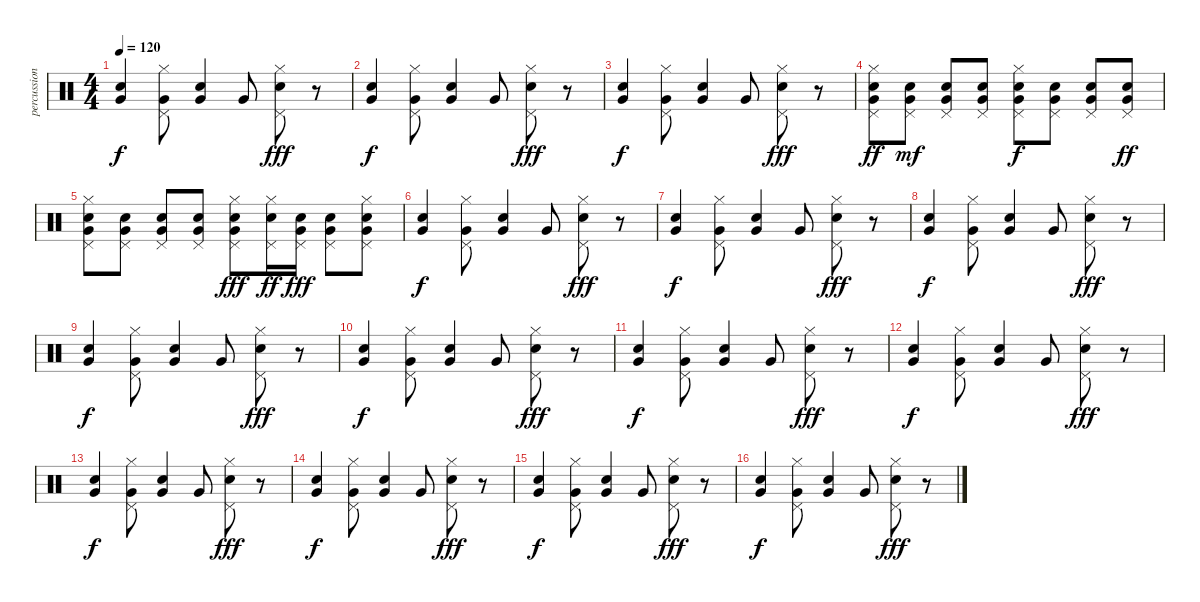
\track ("percussion" "percussion") {instrument percussion}
\staff {score}
\articulation defaults
\ts (4 4)
\tempo 120
\clef neutral
\ks c
("Snare (hit) 2" "Very Low Tom (hit)").4{dy f} ("Pedal Hi-Hat (hit)" "Hi-Hat (closed)" "Very Low Tom (hit)").8 ("Snare (hit) 2" "Very Low Tom (hit)").4 "Very Low Tom (hit)".8 ("Pedal Hi-Hat (hit)" "Hi-Hat (closed)" "Snare (hit) 2").8{dy fff} r.8 |
("Snare (hit) 2" "Very Low Tom (hit)").4{dy f} ("Pedal Hi-Hat (hit)" "Hi-Hat (closed)" "Very Low Tom (hit)").8 ("Snare (hit) 2" "Very Low Tom (hit)").4 "Very Low Tom (hit)".8 ("Pedal Hi-Hat (hit)" "Hi-Hat (closed)" "Snare (hit) 2").8{dy fff} r.8 |
("Snare (hit) 2" "Very Low Tom (hit)").4{dy f} ("Pedal Hi-Hat (hit)" "Hi-Hat (closed)" "Very Low Tom (hit)").8 ("Snare (hit) 2" "Very Low Tom (hit)").4 "Very Low Tom (hit)".8 ("Pedal Hi-Hat (hit)" "Hi-Hat (closed)" "Snare (hit) 2").8{dy fff} r.8 |
("Pedal Hi-Hat (hit)" "Hi-Hat (closed)" "Snare (hit) 2" "Very Low Tom (hit)").8{dy ff} ("Pedal Hi-Hat (hit)" "Snare (hit) 2" "Very Low Tom (hit)").8{dy mf} ("Pedal Hi-Hat (hit)" "Snare (hit) 2" "Very Low Tom (hit)").8 ("Pedal Hi-Hat (hit)" "Snare (hit) 2" "Very Low Tom (hit)").8 ("Pedal Hi-Hat (hit)" "Hi-Hat (closed)" "Snare (hit) 2" "Very Low Tom (hit)").8{dy f} ("Pedal Hi-Hat (hit)" "Snare (hit) 2" "Very Low Tom (hit)").8 ("Pedal Hi-Hat (hit)" "Snare (hit) 2" "Very Low Tom (hit)").8 ("Pedal Hi-Hat (hit)" "Snare (hit) 2" "Very Low Tom (hit)").8{dy ff} |
("Pedal Hi-Hat (hit)" "Hi-Hat (closed)" "Snare (hit) 2" "Very Low Tom (hit)").8 ("Pedal Hi-Hat (hit)" "Snare (hit) 2" "Very Low Tom (hit)").8 ("Pedal Hi-Hat (hit)" "Snare (hit) 2" "Very Low Tom (hit)").8 ("Pedal Hi-Hat (hit)" "Snare (hit) 2" "Very Low Tom (hit)").8 ("Pedal Hi-Hat (hit)" "Hi-Hat (closed)" "Snare (hit) 2" "Very Low Tom (hit)").8{dy fff} ("Pedal Hi-Hat (hit)" "Hi-Hat (closed)" "Snare (hit) 2").16{dy ff} ("Pedal Hi-Hat (hit)" "Snare (hit) 2" "Very Low Tom (hit)").16{dy fff} ("Pedal Hi-Hat (hit)" "Snare (hit) 2" "Very Low Tom (hit)").8 ("Pedal Hi-Hat (hit)" "Hi-Hat (closed)" "Snare (hit) 2" "Very Low Tom (hit)").8 |
("Snare (hit) 2" "Very Low Tom (hit)").4{dy f} ("Pedal Hi-Hat (hit)" "Hi-Hat (closed)" "Very Low Tom (hit)").8 ("Snare (hit) 2" "Very Low Tom (hit)").4 "Very Low Tom (hit)".8 ("Pedal Hi-Hat (hit)" "Hi-Hat (closed)" "Snare (hit) 2").8{dy fff} r.8 |
("Snare (hit) 2" "Very Low Tom (hit)").4{dy f} ("Pedal Hi-Hat (hit)" "Hi-Hat (closed)" "Very Low Tom (hit)").8 ("Snare (hit) 2" "Very Low Tom (hit)").4 "Very Low Tom (hit)".8 ("Pedal Hi-Hat (hit)" "Hi-Hat (closed)" "Snare (hit) 2").8{dy fff} r.8 |
("Snare (hit) 2" "Very Low Tom (hit)").4{dy f} ("Pedal Hi-Hat (hit)" "Hi-Hat (closed)" "Very Low Tom (hit)").8 ("Snare (hit) 2" "Very Low Tom (hit)").4 "Very Low Tom (hit)".8 ("Pedal Hi-Hat (hit)" "Hi-Hat (closed)" "Snare (hit) 2").8{dy fff} r.8 |
("Snare (hit) 2" "Very Low Tom (hit)").4{dy f} ("Pedal Hi-Hat (hit)" "Hi-Hat (closed)" "Very Low Tom (hit)").8 ("Snare (hit) 2" "Very Low Tom (hit)").4 "Very Low Tom (hit)".8 ("Pedal Hi-Hat (hit)" "Hi-Hat (closed)" "Snare (hit) 2").8{dy fff} r.8 |
("Snare (hit) 2" "Very Low Tom (hit)").4{dy f} ("Pedal Hi-Hat (hit)" "Hi-Hat (closed)" "Very Low Tom (hit)").8 ("Snare (hit) 2" "Very Low Tom (hit)").4 "Very Low Tom (hit)".8 ("Pedal Hi-Hat (hit)" "Hi-Hat (closed)" "Snare (hit) 2").8{dy fff} r.8 |
("Snare (hit) 2" "Very Low Tom (hit)").4{dy f} ("Pedal Hi-Hat (hit)" "Hi-Hat (closed)" "Very Low Tom (hit)").8 ("Snare (hit) 2" "Very Low Tom (hit)").4 "Very Low Tom (hit)".8 ("Pedal Hi-Hat (hit)" "Hi-Hat (closed)" "Snare (hit) 2").8{dy fff} r.8 |
("Snare (hit) 2" "Very Low Tom (hit)").4{dy f} ("Pedal Hi-Hat (hit)" "Hi-Hat (closed)" "Very Low Tom (hit)").8 ("Snare (hit) 2" "Very Low Tom (hit)").4 "Very Low Tom (hit)".8 ("Pedal Hi-Hat (hit)" "Hi-Hat (closed)" "Snare (hit) 2").8{dy fff} r.8 |
("Snare (hit) 2" "Very Low Tom (hit)").4{dy f} ("Pedal Hi-Hat (hit)" "Hi-Hat (closed)" "Very Low Tom (hit)").8 ("Snare (hit) 2" "Very Low Tom (hit)").4 "Very Low Tom (hit)".8 ("Pedal Hi-Hat (hit)" "Hi-Hat (closed)" "Snare (hit) 2").8{dy fff} r.8 |
("Snare (hit) 2" "Very Low Tom (hit)").4{dy f} ("Pedal Hi-Hat (hit)" "Hi-Hat (closed)" "Very Low Tom (hit)").8 ("Snare (hit) 2" "Very Low Tom (hit)").4 "Very Low Tom (hit)".8 ("Pedal Hi-Hat (hit)" "Hi-Hat (closed)" "Snare (hit) 2").8{dy fff} r.8 |
("Snare (hit) 2" "Very Low Tom (hit)").4{dy f} ("Pedal Hi-Hat (hit)" "Hi-Hat (closed)" "Very Low Tom (hit)").8 ("Snare (hit) 2" "Very Low Tom (hit)").4 "Very Low Tom (hit)".8 ("Pedal Hi-Hat (hit)" "Hi-Hat (closed)" "Snare (hit) 2").8{dy fff} r.8 |
("Snare (hit) 2" "Very Low Tom (hit)").4{dy f} ("Pedal Hi-Hat (hit)" "Hi-Hat (closed)" "Very Low Tom (hit)").8 ("Snare (hit) 2" "Very Low Tom (hit)").4 "Very Low Tom (hit)".8 ("Pedal Hi-Hat (hit)" "Hi-Hat (closed)" "Snare (hit) 2").8{dy fff} r.8
